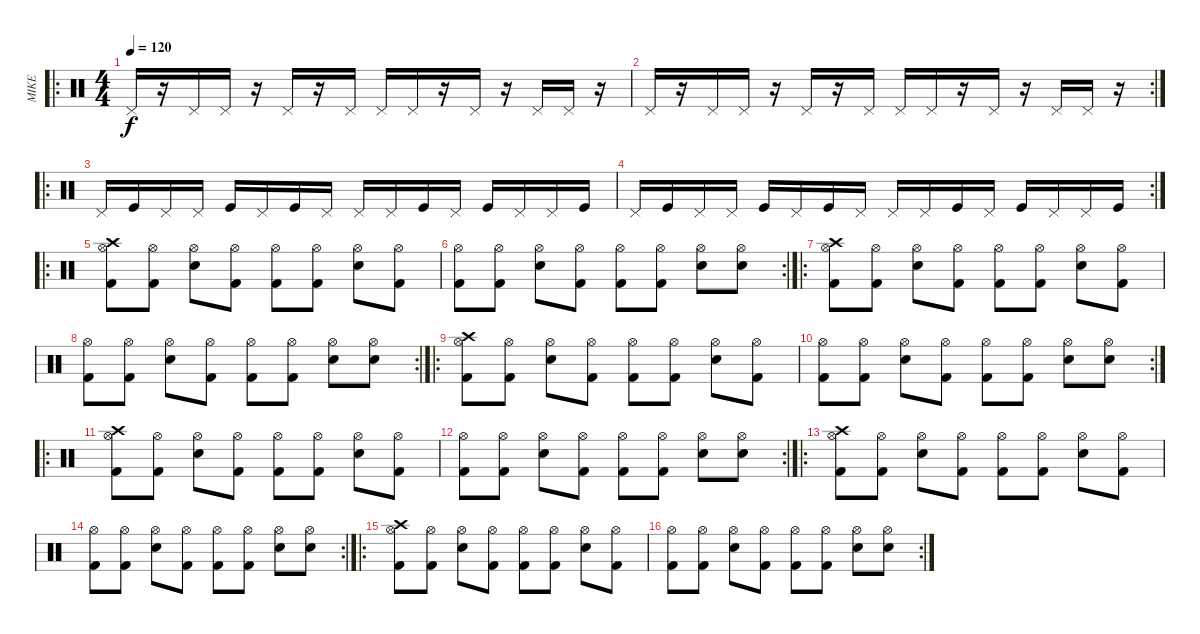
\track ("MIKE" "MIKE") {instrument percussion}
\staff {score}
\articulation defaults
\ro
\ts (4 4)
\tempo 120
\clef neutral
\ks c "Pedal Hi-Hat (hit)".16{dy f}
r.16 "Pedal Hi-Hat (hit)".16 "Pedal Hi-Hat (hit)".16 r.16 "Pedal Hi-Hat (hit)".16 r.16 "Pedal Hi-Hat (hit)".16 "Pedal Hi-Hat (hit)".16 "Pedal Hi-Hat (hit)".16 r.16 "Pedal Hi-Hat (hit)".16 r.16 "Pedal Hi-Hat (hit)".16 "Pedal Hi-Hat (hit)".16 r.16 |
\rc 2 "Pedal Hi-Hat (hit)".16
r.16 "Pedal Hi-Hat (hit)".16 "Pedal Hi-Hat (hit)".16 r.16 "Pedal Hi-Hat (hit)".16 r.16 "Pedal Hi-Hat (hit)".16 "Pedal Hi-Hat (hit)".16 "Pedal Hi-Hat (hit)".16 r.16 "Pedal Hi-Hat (hit)".16 r.16 "Pedal Hi-Hat (hit)".16 "Pedal Hi-Hat (hit)".16 r.16 |
\ro "Pedal Hi-Hat (hit)".16 "Kick (hit)".16 "Pedal Hi-Hat (hit)".16 "Pedal Hi-Hat (hit)".16 "Kick (hit)".16 "Pedal Hi-Hat (hit)".16 "Kick (hit)".16 "Pedal Hi-Hat (hit)".16 "Pedal Hi-Hat (hit)".16 "Pedal Hi-Hat (hit)".16 "Kick (hit)".16 "Pedal Hi-Hat (hit)".16 "Kick (hit)".16 "Pedal Hi-Hat (hit)".16 "Pedal Hi-Hat (hit)".16 "Kick (hit)".16
|
\rc 2 "Pedal Hi-Hat (hit)".16 "Kick (hit)".16 "Pedal Hi-Hat (hit)".16 "Pedal Hi-Hat (hit)".16 "Kick (hit)".16 "Pedal Hi-Hat (hit)".16 "Kick (hit)".16 "Pedal Hi-Hat (hit)".16 "Pedal Hi-Hat (hit)".16 "Pedal Hi-Hat (hit)".16 "Kick (hit)".16 "Pedal Hi-Hat (hit)".16 "Kick (hit)".16 "Pedal Hi-Hat (hit)".16 "Pedal Hi-Hat (hit)".16 "Kick (hit)".16
|
\ro
("Crash high (hit)" "Hi-Hat (open)" "Kick (hit) 2").8 ("Hi-Hat (open)" "Kick (hit) 2").8 ("Hi-Hat (open)" "Snare (hit) 2").8 ("Hi-Hat (open)" "Kick (hit) 2").8 ("Hi-Hat (open)" "Kick (hit) 2").8 ("Hi-Hat (open)" "Kick (hit) 2").8 ("Hi-Hat (open)" "Snare (hit) 2").8 ("Hi-Hat (open)" "Kick (hit) 2").8 |
\rc 2
("Hi-Hat (open)" "Kick (hit) 2").8 ("Hi-Hat (open)" "Kick (hit) 2").8 ("Hi-Hat (open)" "Snare (hit) 2").8 ("Hi-Hat (open)" "Kick (hit) 2").8 ("Hi-Hat (open)" "Kick (hit) 2").8 ("Hi-Hat (open)" "Kick (hit) 2").8 ("Hi-Hat (open)" "Snare (hit) 2").8 ("Hi-Hat (open)" "Snare (hit) 2").8 |
\ro
("Crash high (hit)" "Hi-Hat (open)" "Kick (hit) 2").8 ("Hi-Hat (open)" "Kick (hit) 2").8 ("Hi-Hat (open)" "Snare (hit) 2").8 ("Hi-Hat (open)" "Kick (hit) 2").8 ("Hi-Hat (open)" "Kick (hit) 2").8 ("Hi-Hat (open)" "Kick (hit) 2").8 ("Hi-Hat (open)" "Snare (hit) 2").8 ("Hi-Hat (open)" "Kick (hit) 2").8 |
\rc 2
("Hi-Hat (open)" "Kick (hit) 2").8 ("Hi-Hat (open)" "Kick (hit) 2").8 ("Hi-Hat (open)" "Snare (hit) 2").8 ("Hi-Hat (open)" "Kick (hit) 2").8 ("Hi-Hat (open)" "Kick (hit) 2").8 ("Hi-Hat (open)" "Kick (hit) 2").8 ("Hi-Hat (open)" "Snare (hit) 2").8 ("Hi-Hat (open)" "Snare (hit) 2").8 |
\ro
("Crash high (hit)" "Hi-Hat (open)" "Kick (hit) 2").8 ("Hi-Hat (open)" "Kick (hit) 2").8 ("Hi-Hat (open)" "Snare (hit) 2").8 ("Hi-Hat (open)" "Kick (hit) 2").8 ("Hi-Hat (open)" "Kick (hit) 2").8 ("Hi-Hat (open)" "Kick (hit) 2").8 ("Hi-Hat (open)" "Snare (hit) 2").8 ("Hi-Hat (open)" "Kick (hit) 2").8 |
\rc 2
("Hi-Hat (open)" "Kick (hit) 2").8 ("Hi-Hat (open)" "Kick (hit) 2").8 ("Hi-Hat (open)" "Snare (hit) 2").8 ("Hi-Hat (open)" "Kick (hit) 2").8 ("Hi-Hat (open)" "Kick (hit) 2").8 ("Hi-Hat (open)" "Kick (hit) 2").8 ("Hi-Hat (open)" "Snare (hit) 2").8 ("Hi-Hat (open)" "Snare (hit) 2").8 |
\ro
("Crash high (hit)" "Hi-Hat (open)" "Kick (hit) 2").8 ("Hi-Hat (open)" "Kick (hit) 2").8 ("Hi-Hat (open)" "Snare (hit) 2").8 ("Hi-Hat (open)" "Kick (hit) 2").8 ("Hi-Hat (open)" "Kick (hit) 2").8 ("Hi-Hat (open)" "Kick (hit) 2").8 ("Hi-Hat (open)" "Snare (hit) 2").8 ("Hi-Hat (open)" "Kick (hit) 2").8 |
\rc 2
("Hi-Hat (open)" "Kick (hit) 2").8 ("Hi-Hat (open)" "Kick (hit) 2").8 ("Hi-Hat (open)" "Snare (hit) 2").8 ("Hi-Hat (open)" "Kick (hit) 2").8 ("Hi-Hat (open)" "Kick (hit) 2").8 ("Hi-Hat (open)" "Kick (hit) 2").8 ("Hi-Hat (open)" "Snare (hit) 2").8 ("Hi-Hat (open)" "Snare (hit) 2").8 |
\ro
("Crash high (hit)" "Hi-Hat (open)" "Kick (hit) 2").8 ("Hi-Hat (open)" "Kick (hit) 2").8 ("Hi-Hat (open)" "Snare (hit) 2").8 ("Hi-Hat (open)" "Kick (hit) 2").8 ("Hi-Hat (open)" "Kick (hit) 2").8 ("Hi-Hat (open)" "Kick (hit) 2").8 ("Hi-Hat (open)" "Snare (hit) 2").8 ("Hi-Hat (open)" "Kick (hit) 2").8 |
\rc 2
("Hi-Hat (open)" "Kick (hit) 2").8 ("Hi-Hat (open)" "Kick (hit) 2").8 ("Hi-Hat (open)" "Snare (hit) 2").8 ("Hi-Hat (open)" "Kick (hit) 2").8 ("Hi-Hat (open)" "Kick (hit) 2").8 ("Hi-Hat (open)" "Kick (hit) 2").8 ("Hi-Hat (open)" "Snare (hit) 2").8 ("Hi-Hat (open)" "Snare (hit) 2").8 |
\ro
("Crash high (hit)" "Hi-Hat (open)" "Kick (hit) 2").8 ("Hi-Hat (open)" "Kick (hit) 2").8 ("Hi-Hat (open)" "Snare (hit) 2").8 ("Hi-Hat (open)" "Kick (hit) 2").8 ("Hi-Hat (open)" "Kick (hit) 2").8 ("Hi-Hat (open)" "Kick (hit) 2").8 ("Hi-Hat (open)" "Snare (hit) 2").8 ("Hi-Hat (open)" "Kick (hit) 2").8 |
\rc 2
("Hi-Hat (open)" "Kick (hit) 2").8 ("Hi-Hat (open)" "Kick (hit) 2").8 ("Hi-Hat (open)" "Snare (hit) 2").8 ("Hi-Hat (open)" "Kick (hit) 2").8 ("Hi-Hat (open)" "Kick (hit) 2").8 ("Hi-Hat (open)" "Kick (hit) 2").8 ("Hi-Hat (open)" "Snare (hit) 2").8 ("Hi-Hat (open)" "Snare (hit) 2").8
